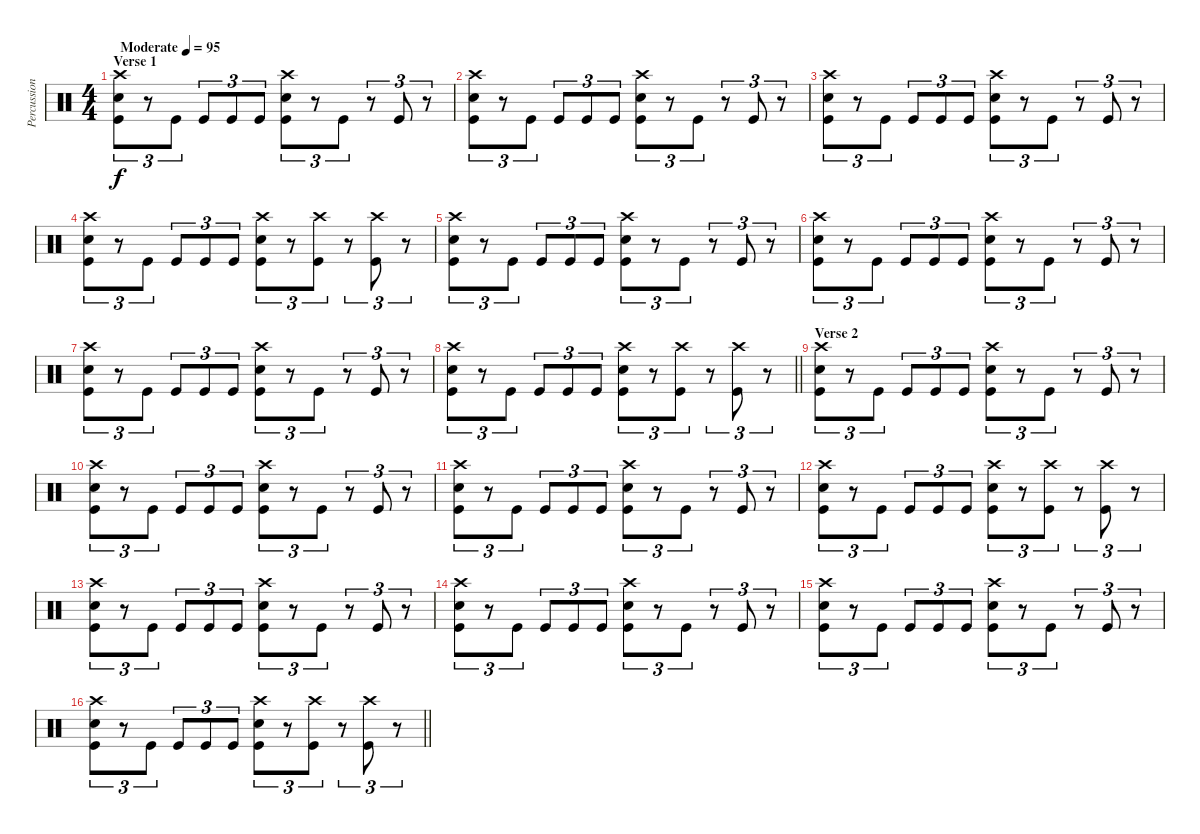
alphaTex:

\track ("Percussion" "Percussion") {instrument percussion}
\staff {score}
\articulation defaults
\ts (4 4)
\section ("" "Verse 1")
\tempo (95 "Moderate")
\clef neutral
\ks c
("Crash high (hit)" "Snare (hit) 2" "Kick (hit)").8{tu (3 2) dy f} r.8{tu (3 2)} "Kick (hit)".8{tu (3 2)} "Kick (hit)".8{tu (3 2)} "Kick (hit)".8{tu (3 2)} "Kick (hit)".8{tu (3 2)} ("Crash high (hit)" "Snare (hit) 2" "Kick (hit)").8{tu (3 2)} r.8{tu (3 2)} "Kick (hit)".8{tu (3 2)} r.8{tu (3 2)} "Kick (hit)".8{tu (3 2)} r.8{tu (3 2)} |
("Crash high (hit)" "Snare (hit) 2" "Kick (hit)").8{tu (3 2)} r.8{tu (3 2)} "Kick (hit)".8{tu (3 2)} "Kick (hit)".8{tu (3 2)} "Kick (hit)".8{tu (3 2)} "Kick (hit)".8{tu (3 2)} ("Crash high (hit)" "Snare (hit) 2" "Kick (hit)").8{tu (3 2)} r.8{tu (3 2)} "Kick (hit)".8{tu (3 2)} r.8{tu (3 2)} "Kick (hit)".8{tu (3 2)} r.8{tu (3 2)} |
("Crash high (hit)" "Snare (hit) 2" "Kick (hit)").8{tu (3 2)} r.8{tu (3 2)} "Kick (hit)".8{tu (3 2)} "Kick (hit)".8{tu (3 2)} "Kick (hit)".8{tu (3 2)} "Kick (hit)".8{tu (3 2)} ("Crash high (hit)" "Snare (hit) 2" "Kick (hit)").8{tu (3 2)} r.8{tu (3 2)} "Kick (hit)".8{tu (3 2)} r.8{tu (3 2)} "Kick (hit)".8{tu (3 2)} r.8{tu (3 2)} |
("Crash high (hit)" "Snare (hit) 2" "Kick (hit)").8{tu (3 2)} r.8{tu (3 2)} "Kick (hit)".8{tu (3 2)} "Kick (hit)".8{tu (3 2)} "Kick (hit)".8{tu (3 2)} "Kick (hit)".8{tu (3 2)} ("Crash high (hit)" "Snare (hit) 2" "Kick (hit)").8{tu (3 2)} r.8{tu (3 2)} ("Crash high (hit)" "Kick (hit)").8{tu (3 2)} r.8{tu (3 2)} ("Crash high (hit)" "Kick (hit)").8{tu (3 2)} r.8{tu (3 2)} |
("Crash high (hit)" "Snare (hit) 2" "Kick (hit)").8{tu (3 2)} r.8{tu (3 2)} "Kick (hit)".8{tu (3 2)} "Kick (hit)".8{tu (3 2)} "Kick (hit)".8{tu (3 2)} "Kick (hit)".8{tu (3 2)} ("Crash high (hit)" "Snare (hit) 2" "Kick (hit)").8{tu (3 2)} r.8{tu (3 2)} "Kick (hit)".8{tu (3 2)} r.8{tu (3 2)} "Kick (hit)".8{tu (3 2)} r.8{tu (3 2)} |
("Crash high (hit)" "Snare (hit) 2" "Kick (hit)").8{tu (3 2)} r.8{tu (3 2)} "Kick (hit)".8{tu (3 2)} "Kick (hit)".8{tu (3 2)} "Kick (hit)".8{tu (3 2)} "Kick (hit)".8{tu (3 2)} ("Crash high (hit)" "Snare (hit) 2" "Kick (hit)").8{tu (3 2)} r.8{tu (3 2)} "Kick (hit)".8{tu (3 2)} r.8{tu (3 2)} "Kick (hit)".8{tu (3 2)} r.8{tu (3 2)} |
("Crash high (hit)" "Snare (hit) 2" "Kick (hit)").8{tu (3 2)} r.8{tu (3 2)} "Kick (hit)".8{tu (3 2)} "Kick (hit)".8{tu (3 2)} "Kick (hit)".8{tu (3 2)} "Kick (hit)".8{tu (3 2)} ("Crash high (hit)" "Snare (hit) 2" "Kick (hit)").8{tu (3 2)} r.8{tu (3 2)} "Kick (hit)".8{tu (3 2)} r.8{tu (3 2)} "Kick (hit)".8{tu (3 2)} r.8{tu (3 2)} |
\barLineRight lightlight
("Crash high (hit)" "Snare (hit) 2" "Kick (hit)").8{tu (3 2)} r.8{tu (3 2)} "Kick (hit)".8{tu (3 2)} "Kick (hit)".8{tu (3 2)} "Kick (hit)".8{tu (3 2)} "Kick (hit)".8{tu (3 2)} ("Crash high (hit)" "Snare (hit) 2" "Kick (hit)").8{tu (3 2)} r.8{tu (3 2)} ("Crash high (hit)" "Kick (hit)").8{tu (3 2)} r.8{tu (3 2)} ("Crash high (hit)" "Kick (hit)").8{tu (3 2)} r.8{tu (3 2)} |
\section ("" "Verse 2")
("Crash high (hit)" "Snare (hit) 2" "Kick (hit)").8{tu (3 2)} r.8{tu (3 2)} "Kick (hit)".8{tu (3 2)} "Kick (hit)".8{tu (3 2)} "Kick (hit)".8{tu (3 2)} "Kick (hit)".8{tu (3 2)} ("Crash high (hit)" "Snare (hit) 2" "Kick (hit)").8{tu (3 2)} r.8{tu (3 2)} "Kick (hit)".8{tu (3 2)} r.8{tu (3 2)} "Kick (hit)".8{tu (3 2)} r.8{tu (3 2)} |
("Crash high (hit)" "Snare (hit) 2" "Kick (hit)").8{tu (3 2)} r.8{tu (3 2)} "Kick (hit)".8{tu (3 2)} "Kick (hit)".8{tu (3 2)} "Kick (hit)".8{tu (3 2)} "Kick (hit)".8{tu (3 2)} ("Crash high (hit)" "Snare (hit) 2" "Kick (hit)").8{tu (3 2)} r.8{tu (3 2)} "Kick (hit)".8{tu (3 2)} r.8{tu (3 2)} "Kick (hit)".8{tu (3 2)} r.8{tu (3 2)} |
("Crash high (hit)" "Snare (hit) 2" "Kick (hit)").8{tu (3 2)} r.8{tu (3 2)} "Kick (hit)".8{tu (3 2)} "Kick (hit)".8{tu (3 2)} "Kick (hit)".8{tu (3 2)} "Kick (hit)".8{tu (3 2)} ("Crash high (hit)" "Snare (hit) 2" "Kick (hit)").8{tu (3 2)} r.8{tu (3 2)} "Kick (hit)".8{tu (3 2)} r.8{tu (3 2)} "Kick (hit)".8{tu (3 2)} r.8{tu (3 2)} |
("Crash high (hit)" "Snare (hit) 2" "Kick (hit)").8{tu (3 2)} r.8{tu (3 2)} "Kick (hit)".8{tu (3 2)} "Kick (hit)".8{tu (3 2)} "Kick (hit)".8{tu (3 2)} "Kick (hit)".8{tu (3 2)} ("Crash high (hit)" "Snare (hit) 2" "Kick (hit)").8{tu (3 2)} r.8{tu (3 2)} ("Crash high (hit)" "Kick (hit)").8{tu (3 2)} r.8{tu (3 2)} ("Crash high (hit)" "Kick (hit)").8{tu (3 2)} r.8{tu (3 2)} |
("Crash high (hit)" "Snare (hit) 2" "Kick (hit)").8{tu (3 2)} r.8{tu (3 2)} "Kick (hit)".8{tu (3 2)} "Kick (hit)".8{tu (3 2)} "Kick (hit)".8{tu (3 2)} "Kick (hit)".8{tu (3 2)} ("Crash high (hit)" "Snare (hit) 2" "Kick (hit)").8{tu (3 2)} r.8{tu (3 2)} "Kick (hit)".8{tu (3 2)} r.8{tu (3 2)} "Kick (hit)".8{tu (3 2)} r.8{tu (3 2)} |
("Crash high (hit)" "Snare (hit) 2" "Kick (hit)").8{tu (3 2)} r.8{tu (3 2)} "Kick (hit)".8{tu (3 2)} "Kick (hit)".8{tu (3 2)} "Kick (hit)".8{tu (3 2)} "Kick (hit)".8{tu (3 2)} ("Crash high (hit)" "Snare (hit) 2" "Kick (hit)").8{tu (3 2)} r.8{tu (3 2)} "Kick (hit)".8{tu (3 2)} r.8{tu (3 2)} "Kick (hit)".8{tu (3 2)} r.8{tu (3 2)} |
("Crash high (hit)" "Snare (hit) 2" "Kick (hit)").8{tu (3 2)} r.8{tu (3 2)} "Kick (hit)".8{tu (3 2)} "Kick (hit)".8{tu (3 2)} "Kick (hit)".8{tu (3 2)} "Kick (hit)".8{tu (3 2)} ("Crash high (hit)" "Snare (hit) 2" "Kick (hit)").8{tu (3 2)} r.8{tu (3 2)} "Kick (hit)".8{tu (3 2)} r.8{tu (3 2)} "Kick (hit)".8{tu (3 2)} r.8{tu (3 2)} |
\barLineRight lightlight
("Crash high (hit)" "Snare (hit) 2" "Kick (hit)").8{tu (3 2)} r.8{tu (3 2)} "Kick (hit)".8{tu (3 2)} "Kick (hit)".8{tu (3 2)} "Kick (hit)".8{tu (3 2)} "Kick (hit)".8{tu (3 2)} ("Crash high (hit)" "Snare (hit) 2" "Kick (hit)").8{tu (3 2)} r.8{tu (3 2)} ("Crash high (hit)" "Kick (hit)").8{tu (3 2)} r.8{tu (3 2)} ("Crash high (hit)" "Kick (hit)").8{tu (3 2)} r.8{tu (3 2)}
